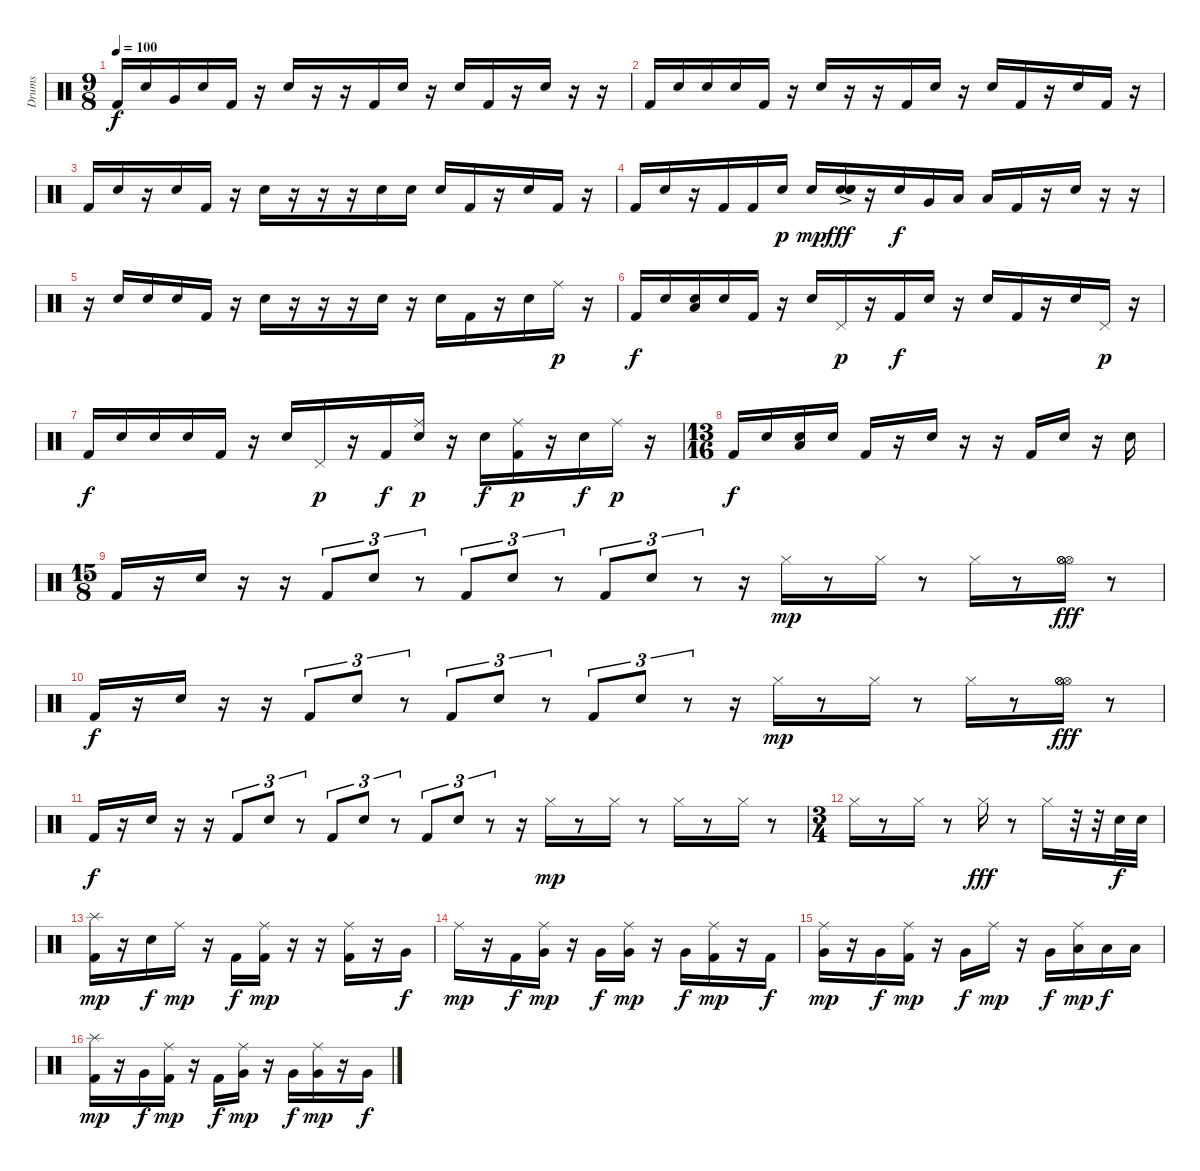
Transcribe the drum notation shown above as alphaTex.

\track ("Drums" "Drums") {instrument percussion}
\staff {score}
\articulation defaults
\ts (9 8)
\tempo 100
\clef neutral
\ks c "Kick (hit) 2".16{dy f} "Electric Snare (hit)".16 "Very Low Tom (hit)".16 "Electric Snare (hit)".16 "Kick (hit) 2".16
r.16 "Electric Snare (hit)".16 r.16 r.16 "Kick (hit) 2".16 "Electric Snare (hit)".16 r.16 "Electric Snare (hit)".16 "Kick (hit) 2".16 r.16 "Electric Snare (hit)".16 r.16 r.16 |
"Kick (hit) 2".16 "Electric Snare (hit)".16 "Electric Snare (hit)".16 "Electric Snare (hit)".16 "Kick (hit) 2".16 r.16 "Electric Snare (hit)".16 r.16 r.16 "Kick (hit) 2".16 "Electric Snare (hit)".16 r.16 "Electric Snare (hit)".16 "Kick (hit) 2".16 r.16 "Electric Snare (hit)".16 "Kick (hit) 2".16 r.16 |
"Kick (hit) 2".16 "Electric Snare (hit)".16 r.16 "Electric Snare (hit)".16 "Kick (hit) 2".16 r.16 "Electric Snare (hit)".16 r.16 r.16 r.16 "Electric Snare (hit)".16 "Electric Snare (hit)".16 "Electric Snare (hit)".16 "Kick (hit) 2".16 r.16 "Electric Snare (hit)".16 "Kick (hit) 2".16 r.16 |
"Kick (hit) 2".16 "Electric Snare (hit)".16 r.16 "Kick (hit) 2".16 "Kick (hit) 2".16 "Electric Snare (hit)".16{dy p} "Electric Snare (hit)".16{dy mp} ("Electric Snare (hit)" "Electric Snare (hit)"{ac} "Electric Snare (hit)"{ac}).16{dy fff} r.16 "Electric Snare (hit)".16{dy f} "Very Low Tom (hit)".16 "Low Floor Tom (hit)".16 "Low Floor Tom (hit)".16 "Kick (hit) 2".16 r.16 "Electric Snare (hit)".16 r.16 r.16 |
r.16 "Electric Snare (hit)".16 "Electric Snare (hit)".16 "Electric Snare (hit)".16 "Kick (hit) 2".16 r.16 "Electric Snare (hit)".16 r.16 r.16 r.16 "Electric Snare (hit)".16 r.16 "Electric Snare (hit)".16 "Kick (hit) 2".16 r.16 "Electric Snare (hit)".16 "Ride (middle)".16{dy p} r.16 |
"Kick (hit) 2".16{dy f} "Electric Snare (hit)".16 ("Low Floor Tom (hit)" "Electric Snare (hit)").16 "Electric Snare (hit)".16 "Kick (hit) 2".16 r.16 "Electric Snare (hit)".16 "Pedal Hi-Hat (hit)".16{dy p} r.16 "Kick (hit) 2".16{dy f} "Electric Snare (hit)".16 r.16 "Electric Snare (hit)".16 "Kick (hit) 2".16 r.16 "Electric Snare (hit)".16 "Pedal Hi-Hat (hit)".16{dy p} r.16 |
"Kick (hit) 2".16{dy f} "Electric Snare (hit)".16 "Electric Snare (hit)".16 "Electric Snare (hit)".16 "Kick (hit) 2".16 r.16 "Electric Snare (hit)".16 "Pedal Hi-Hat (hit)".16{dy p} r.16 "Kick (hit) 2".16{dy f} ("Ride (middle)" "Electric Snare (hit)").16{dy p} r.16 "Electric Snare (hit)".16{dy f} ("Ride (middle)" "Kick (hit) 2").16{dy p} r.16 "Electric Snare (hit)".16{dy f} "Ride (middle)".16{dy p} r.16 |
\ts (13 16)
"Kick (hit) 2".16{dy f} "Electric Snare (hit)".16 ("Low Floor Tom (hit)" "Electric Snare (hit)").16 "Electric Snare (hit)".16 "Kick (hit) 2".16 r.16 "Electric Snare (hit)".16 r.16 r.16 "Kick (hit) 2".16 "Electric Snare (hit)".16 r.16 "Electric Snare (hit)".16 |
\ts (15 8)
"Kick (hit) 2".16 r.16 "Electric Snare (hit)".16 r.16 r.16 "Kick (hit) 2".8{tu (3 2)} "Electric Snare (hit)".8{tu (3 2)} r.8{tu (3 2)} "Kick (hit) 2".8{tu (3 2)} "Electric Snare (hit)".8{tu (3 2)} r.8{tu (3 2)} "Kick (hit) 2".8{tu (3 2)} "Electric Snare (hit)".8{tu (3 2)} r.8{tu (3 2)} r.16 "Hi-Hat (closed)".16{dy mp} r.8 "Hi-Hat (closed)".16 r.8 "Hi-Hat (closed)".16 r.8 ("Hi-Hat (open)" "Hi-Hat (open)" "Hi-Hat (open)").16{bd 480 dy fff} r.8 |
"Kick (hit) 2".16{dy f} r.16 "Electric Snare (hit)".16 r.16 r.16 "Kick (hit) 2".8{tu (3 2)} "Electric Snare (hit)".8{tu (3 2)} r.8{tu (3 2)} "Kick (hit) 2".8{tu (3 2)} "Electric Snare (hit)".8{tu (3 2)} r.8{tu (3 2)} "Kick (hit) 2".8{tu (3 2)} "Electric Snare (hit)".8{tu (3 2)} r.8{tu (3 2)} r.16 "Hi-Hat (closed)".16{dy mp} r.8 "Hi-Hat (closed)".16 r.8 "Hi-Hat (closed)".16 r.8 ("Hi-Hat (open)" "Hi-Hat (open)" "Hi-Hat (open)").16{bd 480 dy fff} r.8 |
"Kick (hit) 2".16{dy f} r.16 "Electric Snare (hit)".16 r.16 r.16 "Kick (hit) 2".8{tu (3 2)} "Electric Snare (hit)".8{tu (3 2)} r.8{tu (3 2)} "Kick (hit) 2".8{tu (3 2)} "Electric Snare (hit)".8{tu (3 2)} r.8{tu (3 2)} "Kick (hit) 2".8{tu (3 2)} "Electric Snare (hit)".8{tu (3 2)} r.8{tu (3 2)} r.16 "Hi-Hat (closed)".16{dy mp} r.8 "Hi-Hat (closed)".16 r.8 "Hi-Hat (closed)".16 r.8 "Hi-Hat (closed)".16 r.8 |
\ts (3 4)
"Hi-Hat (closed)".16 r.8 "Hi-Hat (closed)".16 r.8 "Hi-Hat (closed)".16{dy fff} r.8 "Hi-Hat (closed)".16 r.32 r.32 "Electric Snare (hit)".32{dy f} "Electric Snare (hit)".32 |
("Splash (hit)" "Kick (hit) 2").16{dy mp} r.16 "Electric Snare (hit)".16{dy f} "Ride (middle)".16{dy mp} r.16 "Kick (hit) 2".16{dy f} ("Ride (middle)" "Kick (hit) 2").16{dy mp} r.16 r.16 ("Ride (middle)" "Kick (hit) 2").16 r.16 "Very Low Tom (hit)".16{dy f} |
"Ride (middle)".16{dy mp} r.16 "Kick (hit) 2".16{dy f} ("Ride (middle)" "Very Low Tom (hit)").16{dy mp} r.16 "Very Low Tom (hit)".16{dy f} ("Ride (middle)" "Very Low Tom (hit)").16{dy mp} r.16 "Very Low Tom (hit)".16{dy f} ("Ride (middle)" "Kick (hit) 2").16{dy mp} r.16 "Kick (hit) 2".16{dy f} |
("Ride (middle)" "Very Low Tom (hit)").16{dy mp} r.16 "Very Low Tom (hit)".16{dy f} ("Ride (middle)" "Kick (hit) 2").16{dy mp} r.16 "Very Low Tom (hit)".16{dy f} "Ride (middle)".16{dy mp} r.16 "Very Low Tom (hit)".16{dy f} ("Ride (middle)" "Low Floor Tom (hit)").16{dy mp} "Low Floor Tom (hit)".16{dy f} "Low Floor Tom (hit)".16 |
("Splash (hit)" "Kick (hit) 2").16{dy mp} r.16 "Very Low Tom (hit)".16{dy f} ("Ride (middle)" "Kick (hit) 2").16{dy mp} r.16 "Kick (hit) 2".16{dy f} ("Ride (middle)" "Very Low Tom (hit)").16{dy mp} r.16 "Very Low Tom (hit)".16{dy f} ("Ride (middle)" "Very Low Tom (hit)").16{dy mp} r.16 "Very Low Tom (hit)".16{dy f}
